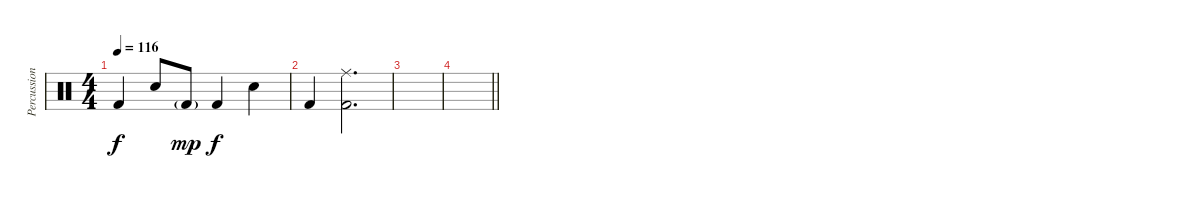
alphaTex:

\track ("Percussion" "Percussion") {instrument percussion}
\staff {score}
\articulation defaults
\ts (4 4)
\tempo 116
\clef neutral
\ks c "Kick (hit) 2".4{dy f} "Snare (hit) 2".8 "Kick (hit) 2"{g}.8{dy mp} "Kick (hit) 2".4{dy f} "Snare (hit) 2".4
|
"Kick (hit) 2".4 ("Ride (middle)" "Kick (hit) 2").2{d} |
|
\barLineRight lightlight
